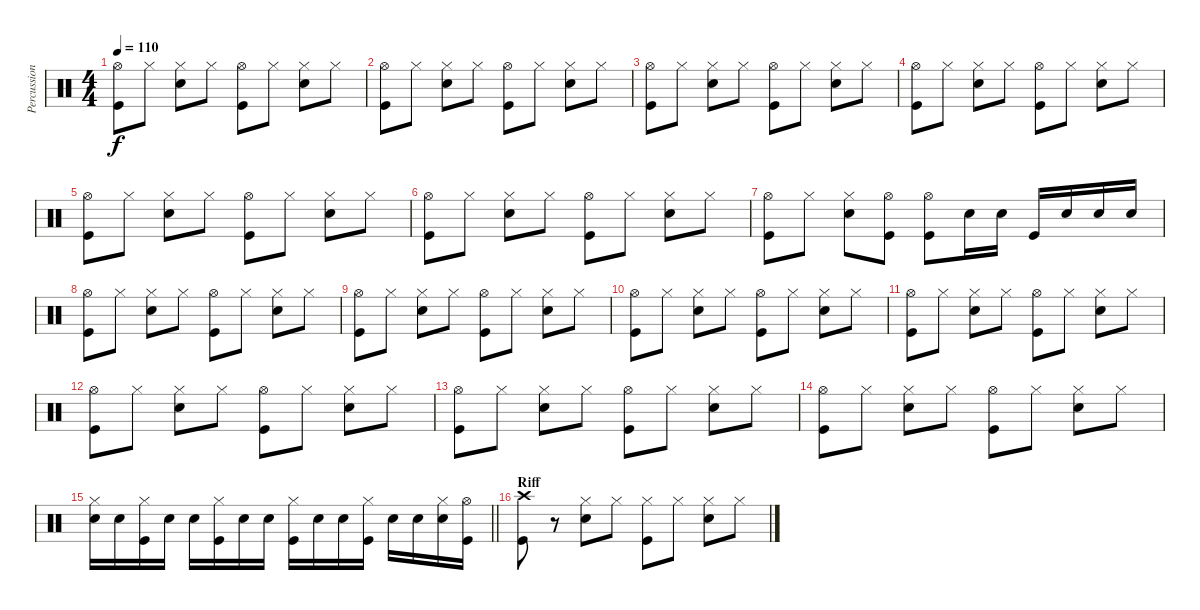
\track ("Percussion" "Percussion") {instrument percussion}
\staff {score}
\articulation defaults
\ts (4 4)
\tempo 110
\clef neutral
\ks c
("Hi-Hat (open)" "Kick (hit)").8{dy f} "Hi-Hat (closed)".8 ("Hi-Hat (closed)" "Snare (hit) 2").8 "Hi-Hat (closed)".8 ("Hi-Hat (open)" "Kick (hit)").8 "Hi-Hat (closed)".8 ("Hi-Hat (closed)" "Snare (hit) 2").8 "Hi-Hat (closed)".8 |
("Hi-Hat (open)" "Kick (hit)").8 "Hi-Hat (closed)".8 ("Hi-Hat (closed)" "Snare (hit) 2").8 "Hi-Hat (closed)".8 ("Hi-Hat (open)" "Kick (hit)").8 "Hi-Hat (closed)".8 ("Hi-Hat (closed)" "Snare (hit) 2").8 "Hi-Hat (closed)".8 |
("Hi-Hat (open)" "Kick (hit)").8 "Hi-Hat (closed)".8 ("Hi-Hat (closed)" "Snare (hit) 2").8 "Hi-Hat (closed)".8 ("Hi-Hat (open)" "Kick (hit)").8 "Hi-Hat (closed)".8 ("Hi-Hat (closed)" "Snare (hit) 2").8 "Hi-Hat (closed)".8 |
("Hi-Hat (open)" "Kick (hit)").8 "Hi-Hat (closed)".8 ("Hi-Hat (closed)" "Snare (hit) 2").8 "Hi-Hat (closed)".8 ("Hi-Hat (open)" "Kick (hit)").8 "Hi-Hat (closed)".8 ("Hi-Hat (closed)" "Snare (hit) 2").8 "Hi-Hat (closed)".8 |
("Hi-Hat (open)" "Kick (hit)").8 "Hi-Hat (closed)".8 ("Hi-Hat (closed)" "Snare (hit) 2").8 "Hi-Hat (closed)".8 ("Hi-Hat (open)" "Kick (hit)").8 "Hi-Hat (closed)".8 ("Hi-Hat (closed)" "Snare (hit) 2").8 "Hi-Hat (closed)".8 |
("Hi-Hat (open)" "Kick (hit)").8 "Hi-Hat (closed)".8 ("Hi-Hat (closed)" "Snare (hit) 2").8 "Hi-Hat (closed)".8 ("Hi-Hat (open)" "Kick (hit)").8 "Hi-Hat (closed)".8 ("Hi-Hat (closed)" "Snare (hit) 2").8 "Hi-Hat (closed)".8 |
("Hi-Hat (open)" "Kick (hit)").8 "Hi-Hat (closed)".8 ("Hi-Hat (closed)" "Snare (hit) 2").8 ("Hi-Hat (open)" "Kick (hit)").8 ("Hi-Hat (open)" "Kick (hit)").8 "Snare (hit) 2".16 "Snare (hit) 2".16 "Kick (hit)".16 "Snare (hit) 2".16 "Snare (hit) 2".16 "Snare (hit) 2".16 |
("Hi-Hat (open)" "Kick (hit)").8 "Hi-Hat (closed)".8 ("Hi-Hat (closed)" "Snare (hit) 2").8 "Hi-Hat (closed)".8 ("Hi-Hat (open)" "Kick (hit)").8 "Hi-Hat (closed)".8 ("Hi-Hat (closed)" "Snare (hit) 2").8 "Hi-Hat (closed)".8 |
("Hi-Hat (open)" "Kick (hit)").8 "Hi-Hat (closed)".8 ("Hi-Hat (closed)" "Snare (hit) 2").8 "Hi-Hat (closed)".8 ("Hi-Hat (open)" "Kick (hit)").8 "Hi-Hat (closed)".8 ("Hi-Hat (closed)" "Snare (hit) 2").8 "Hi-Hat (closed)".8 |
("Hi-Hat (open)" "Kick (hit)").8 "Hi-Hat (closed)".8 ("Hi-Hat (closed)" "Snare (hit) 2").8 "Hi-Hat (closed)".8 ("Hi-Hat (open)" "Kick (hit)").8 "Hi-Hat (closed)".8 ("Hi-Hat (closed)" "Snare (hit) 2").8 "Hi-Hat (closed)".8 |
("Hi-Hat (open)" "Kick (hit)").8 "Hi-Hat (closed)".8 ("Hi-Hat (closed)" "Snare (hit) 2").8 "Hi-Hat (closed)".8 ("Hi-Hat (open)" "Kick (hit)").8 "Hi-Hat (closed)".8 ("Hi-Hat (closed)" "Snare (hit) 2").8 "Hi-Hat (closed)".8 |
("Hi-Hat (open)" "Kick (hit)").8 "Hi-Hat (closed)".8 ("Hi-Hat (closed)" "Snare (hit) 2").8 "Hi-Hat (closed)".8 ("Hi-Hat (open)" "Kick (hit)").8 "Hi-Hat (closed)".8 ("Hi-Hat (closed)" "Snare (hit) 2").8 "Hi-Hat (closed)".8 |
("Hi-Hat (open)" "Kick (hit)").8 "Hi-Hat (closed)".8 ("Hi-Hat (closed)" "Snare (hit) 2").8 "Hi-Hat (closed)".8 ("Hi-Hat (open)" "Kick (hit)").8 "Hi-Hat (closed)".8 ("Hi-Hat (closed)" "Snare (hit) 2").8 "Hi-Hat (closed)".8 |
("Hi-Hat (open)" "Kick (hit)").8 "Hi-Hat (closed)".8 ("Hi-Hat (closed)" "Snare (hit) 2").8 "Hi-Hat (closed)".8 ("Hi-Hat (open)" "Kick (hit)").8 "Hi-Hat (closed)".8 ("Hi-Hat (closed)" "Snare (hit) 2").8 "Hi-Hat (closed)".8 |
\barLineRight lightlight
("Hi-Hat (closed)" "Snare (hit) 2").16 "Snare (hit) 2".16 ("Hi-Hat (closed)" "Kick (hit)").16 "Snare (hit) 2".16 "Snare (hit) 2".16 ("Hi-Hat (closed)" "Kick (hit)").16 "Snare (hit) 2".16 "Snare (hit) 2".16 ("Hi-Hat (closed)" "Kick (hit)").16 "Snare (hit) 2".16 "Snare (hit) 2".16 ("Hi-Hat (closed)" "Kick (hit)").16 "Snare (hit) 2".16 "Snare (hit) 2".16 ("Hi-Hat (closed)" "Snare (hit) 2").16 ("Hi-Hat (open)" "Kick (hit)").16 |
\section ("" "Riff")
("Crash high (hit)" "Kick (hit)").8 r.8 ("Hi-Hat (closed)" "Snare (hit) 2").8 "Hi-Hat (closed)".8 ("Hi-Hat (closed)" "Kick (hit)").8 "Hi-Hat (closed)".8 ("Hi-Hat (closed)" "Snare (hit) 2").8 "Hi-Hat (closed)".8
